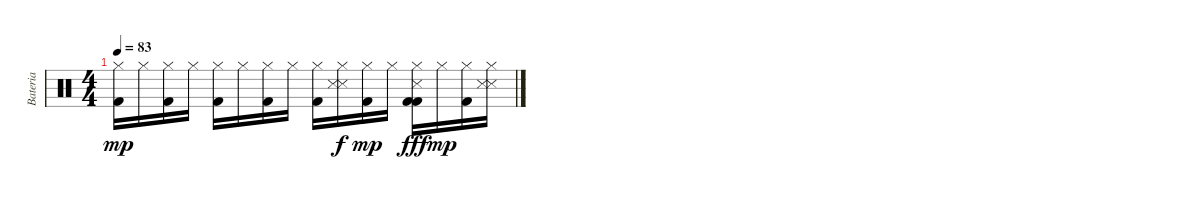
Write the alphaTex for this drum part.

\track ("Bateria" "Bateria") {instrument percussion}
\staff {score}
\articulation defaults
\ts (4 4)
\tempo 83
\clef neutral
\ks c
("Hi-Hat (closed)" "Kick (hit) 2").16{dy mp} "Hi-Hat (closed)".16 ("Hi-Hat (closed)" "Kick (hit) 2").16 "Hi-Hat (closed)".16 ("Hi-Hat (closed)" "Kick (hit) 2").16 "Hi-Hat (closed)".16 ("Hi-Hat (closed)" "Kick (hit) 2").16 "Hi-Hat (closed)".16 ("Hi-Hat (closed)" "Kick (hit) 2").16 ("Hi-Hat (closed)" "Snare (side stick) 3" "Snare (side stick) 3").16{dy f} ("Hi-Hat (closed)" "Kick (hit) 2").16{dy mp} "Hi-Hat (closed)".16 ("Hi-Hat (closed)" "Snare (side stick) 3" "Kick (hit) 2" "Kick (hit) 2").16{dy fff} "Hi-Hat (closed)".16{dy mp} ("Hi-Hat (closed)" "Kick (hit) 2").16 ("Hi-Hat (closed)" "Snare (side stick) 3" "Snare (side stick) 3").16
